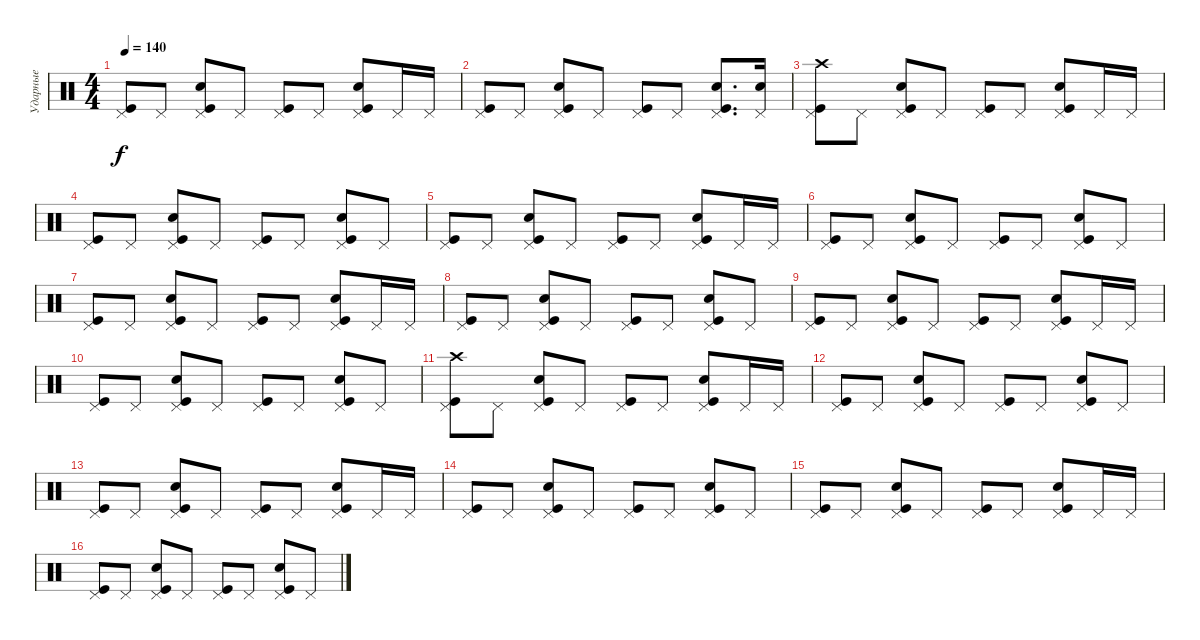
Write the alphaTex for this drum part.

\track ("Ударные" "Ударные") {instrument percussion}
\staff {score}
\articulation defaults
\ts (4 4)
\tempo 140
\clef neutral
\ks c
("Pedal Hi-Hat (hit)" "Kick (hit)").8{dy f} "Pedal Hi-Hat (hit)".8 ("Pedal Hi-Hat (hit)" "Kick (hit)" "Snare (hit) 2").8 "Pedal Hi-Hat (hit)".8 ("Pedal Hi-Hat (hit)" "Kick (hit)").8 "Pedal Hi-Hat (hit)".8 ("Pedal Hi-Hat (hit)" "Kick (hit)" "Snare (hit) 2").8 "Pedal Hi-Hat (hit)".16 "Pedal Hi-Hat (hit)".16 |
("Pedal Hi-Hat (hit)" "Kick (hit)").8 "Pedal Hi-Hat (hit)".8 ("Pedal Hi-Hat (hit)" "Kick (hit)" "Snare (hit) 2").8 "Pedal Hi-Hat (hit)".8 ("Pedal Hi-Hat (hit)" "Kick (hit)").8 "Pedal Hi-Hat (hit)".8 ("Pedal Hi-Hat (hit)" "Kick (hit)" "Snare (hit) 2").8{d} ("Pedal Hi-Hat (hit)" "Snare (hit) 2").16 |
("Pedal Hi-Hat (hit)" "Kick (hit)" "Crash high (hit)").8 "Pedal Hi-Hat (hit)".8 ("Pedal Hi-Hat (hit)" "Kick (hit)" "Snare (hit) 2").8 "Pedal Hi-Hat (hit)".8 ("Pedal Hi-Hat (hit)" "Kick (hit)").8 "Pedal Hi-Hat (hit)".8 ("Pedal Hi-Hat (hit)" "Kick (hit)" "Snare (hit) 2").8 "Pedal Hi-Hat (hit)".16 "Pedal Hi-Hat (hit)".16 |
("Pedal Hi-Hat (hit)" "Kick (hit)").8 "Pedal Hi-Hat (hit)".8 ("Pedal Hi-Hat (hit)" "Kick (hit)" "Snare (hit) 2").8 "Pedal Hi-Hat (hit)".8 ("Pedal Hi-Hat (hit)" "Kick (hit)").8 "Pedal Hi-Hat (hit)".8 ("Pedal Hi-Hat (hit)" "Kick (hit)" "Snare (hit) 2").8 "Pedal Hi-Hat (hit)".8 |
("Pedal Hi-Hat (hit)" "Kick (hit)").8 "Pedal Hi-Hat (hit)".8 ("Pedal Hi-Hat (hit)" "Kick (hit)" "Snare (hit) 2").8 "Pedal Hi-Hat (hit)".8 ("Pedal Hi-Hat (hit)" "Kick (hit)").8 "Pedal Hi-Hat (hit)".8 ("Pedal Hi-Hat (hit)" "Kick (hit)" "Snare (hit) 2").8 "Pedal Hi-Hat (hit)".16 "Pedal Hi-Hat (hit)".16 |
("Pedal Hi-Hat (hit)" "Kick (hit)").8 "Pedal Hi-Hat (hit)".8 ("Pedal Hi-Hat (hit)" "Kick (hit)" "Snare (hit) 2").8 "Pedal Hi-Hat (hit)".8 ("Pedal Hi-Hat (hit)" "Kick (hit)").8 "Pedal Hi-Hat (hit)".8 ("Pedal Hi-Hat (hit)" "Kick (hit)" "Snare (hit) 2").8 "Pedal Hi-Hat (hit)".8 |
("Pedal Hi-Hat (hit)" "Kick (hit)").8 "Pedal Hi-Hat (hit)".8 ("Pedal Hi-Hat (hit)" "Kick (hit)" "Snare (hit) 2").8 "Pedal Hi-Hat (hit)".8 ("Pedal Hi-Hat (hit)" "Kick (hit)").8 "Pedal Hi-Hat (hit)".8 ("Pedal Hi-Hat (hit)" "Kick (hit)" "Snare (hit) 2").8 "Pedal Hi-Hat (hit)".16 "Pedal Hi-Hat (hit)".16 |
("Pedal Hi-Hat (hit)" "Kick (hit)").8 "Pedal Hi-Hat (hit)".8 ("Pedal Hi-Hat (hit)" "Kick (hit)" "Snare (hit) 2").8 "Pedal Hi-Hat (hit)".8 ("Pedal Hi-Hat (hit)" "Kick (hit)").8 "Pedal Hi-Hat (hit)".8 ("Pedal Hi-Hat (hit)" "Kick (hit)" "Snare (hit) 2").8 "Pedal Hi-Hat (hit)".8 |
("Pedal Hi-Hat (hit)" "Kick (hit)").8 "Pedal Hi-Hat (hit)".8 ("Pedal Hi-Hat (hit)" "Kick (hit)" "Snare (hit) 2").8 "Pedal Hi-Hat (hit)".8 ("Pedal Hi-Hat (hit)" "Kick (hit)").8 "Pedal Hi-Hat (hit)".8 ("Pedal Hi-Hat (hit)" "Kick (hit)" "Snare (hit) 2").8 "Pedal Hi-Hat (hit)".16 "Pedal Hi-Hat (hit)".16 |
("Pedal Hi-Hat (hit)" "Kick (hit)").8 "Pedal Hi-Hat (hit)".8 ("Pedal Hi-Hat (hit)" "Kick (hit)" "Snare (hit) 2").8 "Pedal Hi-Hat (hit)".8 ("Pedal Hi-Hat (hit)" "Kick (hit)").8 "Pedal Hi-Hat (hit)".8 ("Pedal Hi-Hat (hit)" "Kick (hit)" "Snare (hit) 2").8 "Pedal Hi-Hat (hit)".8 |
("Pedal Hi-Hat (hit)" "Kick (hit)" "Crash high (hit)").8 "Pedal Hi-Hat (hit)".8 ("Pedal Hi-Hat (hit)" "Kick (hit)" "Snare (hit) 2").8 "Pedal Hi-Hat (hit)".8 ("Pedal Hi-Hat (hit)" "Kick (hit)").8 "Pedal Hi-Hat (hit)".8 ("Pedal Hi-Hat (hit)" "Kick (hit)" "Snare (hit) 2").8 "Pedal Hi-Hat (hit)".16 "Pedal Hi-Hat (hit)".16 |
("Pedal Hi-Hat (hit)" "Kick (hit)").8 "Pedal Hi-Hat (hit)".8 ("Pedal Hi-Hat (hit)" "Kick (hit)" "Snare (hit) 2").8 "Pedal Hi-Hat (hit)".8 ("Pedal Hi-Hat (hit)" "Kick (hit)").8 "Pedal Hi-Hat (hit)".8 ("Pedal Hi-Hat (hit)" "Kick (hit)" "Snare (hit) 2").8 "Pedal Hi-Hat (hit)".8 |
("Pedal Hi-Hat (hit)" "Kick (hit)").8 "Pedal Hi-Hat (hit)".8 ("Pedal Hi-Hat (hit)" "Kick (hit)" "Snare (hit) 2").8 "Pedal Hi-Hat (hit)".8 ("Pedal Hi-Hat (hit)" "Kick (hit)").8 "Pedal Hi-Hat (hit)".8 ("Pedal Hi-Hat (hit)" "Kick (hit)" "Snare (hit) 2").8 "Pedal Hi-Hat (hit)".16 "Pedal Hi-Hat (hit)".16 |
("Pedal Hi-Hat (hit)" "Kick (hit)").8 "Pedal Hi-Hat (hit)".8 ("Pedal Hi-Hat (hit)" "Kick (hit)" "Snare (hit) 2").8 "Pedal Hi-Hat (hit)".8 ("Pedal Hi-Hat (hit)" "Kick (hit)").8 "Pedal Hi-Hat (hit)".8 ("Pedal Hi-Hat (hit)" "Kick (hit)" "Snare (hit) 2").8 "Pedal Hi-Hat (hit)".8 |
("Pedal Hi-Hat (hit)" "Kick (hit)").8 "Pedal Hi-Hat (hit)".8 ("Pedal Hi-Hat (hit)" "Kick (hit)" "Snare (hit) 2").8 "Pedal Hi-Hat (hit)".8 ("Pedal Hi-Hat (hit)" "Kick (hit)").8 "Pedal Hi-Hat (hit)".8 ("Pedal Hi-Hat (hit)" "Kick (hit)" "Snare (hit) 2").8 "Pedal Hi-Hat (hit)".16 "Pedal Hi-Hat (hit)".16 |
("Pedal Hi-Hat (hit)" "Kick (hit)").8 "Pedal Hi-Hat (hit)".8 ("Pedal Hi-Hat (hit)" "Kick (hit)" "Snare (hit) 2").8 "Pedal Hi-Hat (hit)".8 ("Pedal Hi-Hat (hit)" "Kick (hit)").8 "Pedal Hi-Hat (hit)".8 ("Pedal Hi-Hat (hit)" "Kick (hit)" "Snare (hit) 2").8 "Pedal Hi-Hat (hit)".8
